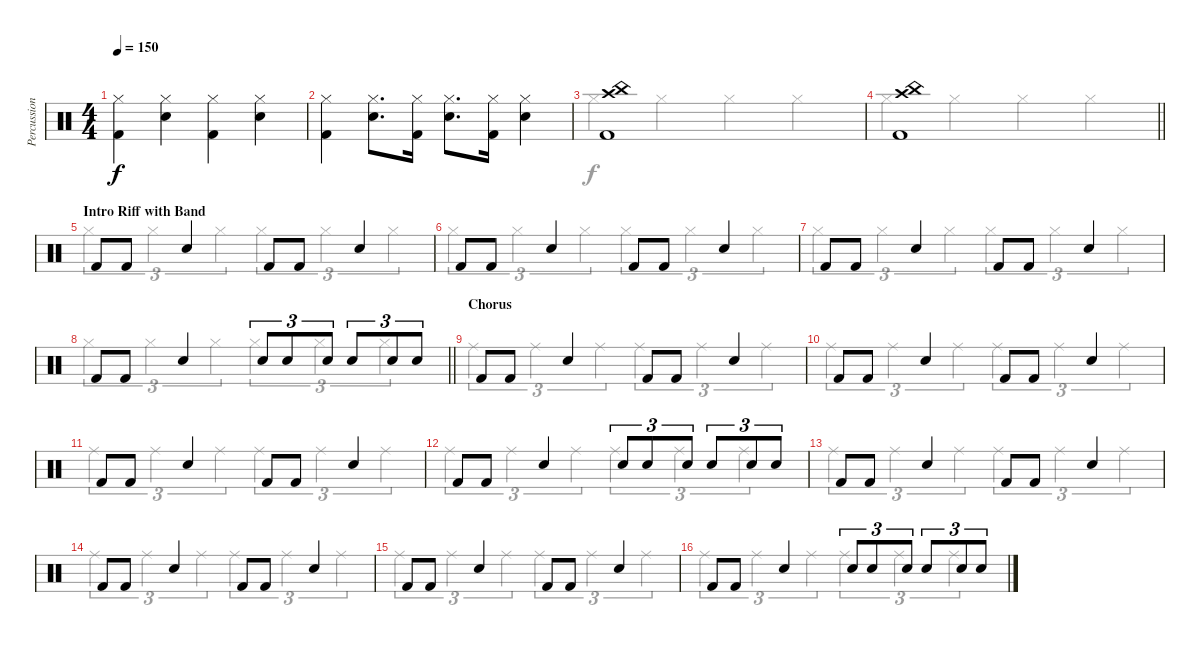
\track ("Percussion" "Percussion") {instrument percussion}
\staff {score}
\articulation defaults
\voice
\ts (4 4)
\tempo 150
\clef neutral
\ks c
("Kick (hit) 2" "Hi-Hat (closed)").4{dy f} ("Snare (hit) 2" "Hi-Hat (closed)").4 ("Kick (hit) 2" "Hi-Hat (closed)").4 ("Snare (hit) 2" "Hi-Hat (closed)").4 |
("Kick (hit) 2" "Hi-Hat (closed)").4 ("Snare (hit) 2" "Hi-Hat (closed)").8{d} ("Kick (hit) 2" "Hi-Hat (closed)").16 ("Snare (hit) 2" "Hi-Hat (closed)").8{d} ("Kick (hit) 2" "Hi-Hat (closed)").16 ("Snare (hit) 2" "Hi-Hat (closed)").4 |
("China (hit)" "Kick (hit) 2" "Crash high (hit)").1 |
\barLineRight lightlight
("China (hit)" "Kick (hit) 2" "Crash high (hit)").1 |
\section ("" "Intro Riff with Band")
"Kick (hit) 2".8 "Kick (hit) 2".8 "Snare (hit) 2".4 "Kick (hit) 2".8 "Kick (hit) 2".8 "Snare (hit) 2".4 |
"Kick (hit) 2".8 "Kick (hit) 2".8 "Snare (hit) 2".4 "Kick (hit) 2".8 "Kick (hit) 2".8 "Snare (hit) 2".4 |
"Kick (hit) 2".8 "Kick (hit) 2".8 "Snare (hit) 2".4 "Kick (hit) 2".8 "Kick (hit) 2".8 "Snare (hit) 2".4 |
\barLineRight lightlight "Kick (hit) 2".8 "Kick (hit) 2".8 "Snare (hit) 2".4 "Snare (hit) 2".8{tu (3 2)} "Snare (hit) 2".8{tu (3 2)} "Snare (hit) 2".8{tu (3 2)} "Snare (hit) 2".8{tu (3 2)} "Snare (hit) 2".8{tu (3 2)} "Snare (hit) 2".8{tu (3 2)}
|
\section ("" "Chorus")
"Kick (hit) 2".8 "Kick (hit) 2".8 "Snare (hit) 2".4 "Kick (hit) 2".8 "Kick (hit) 2".8 "Snare (hit) 2".4 |
"Kick (hit) 2".8 "Kick (hit) 2".8 "Snare (hit) 2".4 "Kick (hit) 2".8 "Kick (hit) 2".8 "Snare (hit) 2".4 |
"Kick (hit) 2".8 "Kick (hit) 2".8 "Snare (hit) 2".4 "Kick (hit) 2".8 "Kick (hit) 2".8 "Snare (hit) 2".4 |
"Kick (hit) 2".8 "Kick (hit) 2".8 "Snare (hit) 2".4 "Snare (hit) 2".8{tu (3 2)} "Snare (hit) 2".8{tu (3 2)} "Snare (hit) 2".8{tu (3 2)} "Snare (hit) 2".8{tu (3 2)} "Snare (hit) 2".8{tu (3 2)} "Snare (hit) 2".8{tu (3 2)} |
"Kick (hit) 2".8 "Kick (hit) 2".8 "Snare (hit) 2".4 "Kick (hit) 2".8 "Kick (hit) 2".8 "Snare (hit) 2".4 |
"Kick (hit) 2".8 "Kick (hit) 2".8 "Snare (hit) 2".4 "Kick (hit) 2".8 "Kick (hit) 2".8 "Snare (hit) 2".4 |
"Kick (hit) 2".8 "Kick (hit) 2".8 "Snare (hit) 2".4 "Kick (hit) 2".8 "Kick (hit) 2".8 "Snare (hit) 2".4 |
"Kick (hit) 2".8 "Kick (hit) 2".8 "Snare (hit) 2".4 "Snare (hit) 2".8{tu (3 2)} "Snare (hit) 2".8{tu (3 2)} "Snare (hit) 2".8{tu (3 2)} "Snare (hit) 2".8{tu (3 2)} "Snare (hit) 2".8{tu (3 2)} "Snare (hit) 2".8{tu (3 2)}
\voice
\clef neutral
\ottava regular
\simile none
\ks c
|
|
"Hi-Hat (closed)".4 "Hi-Hat (closed)".4 "Hi-Hat (closed)".4 "Hi-Hat (closed)".4 |
\barLineRight lightlight "Hi-Hat (closed)".4 "Hi-Hat (closed)".4 "Hi-Hat (closed)".4 "Hi-Hat (closed)".4
|
"Hi-Hat (closed)".4{tu (3 2)} "Hi-Hat (closed)".4{tu (3 2)} "Hi-Hat (closed)".4{tu (3 2)} "Hi-Hat (closed)".4{tu (3 2)} "Hi-Hat (closed)".4{tu (3 2)} "Hi-Hat (closed)".4{tu (3 2)} |
"Hi-Hat (closed)".4{tu (3 2)} "Hi-Hat (closed)".4{tu (3 2)} "Hi-Hat (closed)".4{tu (3 2)} "Hi-Hat (closed)".4{tu (3 2)} "Hi-Hat (closed)".4{tu (3 2)} "Hi-Hat (closed)".4{tu (3 2)} |
"Hi-Hat (closed)".4{tu (3 2)} "Hi-Hat (closed)".4{tu (3 2)} "Hi-Hat (closed)".4{tu (3 2)} "Hi-Hat (closed)".4{tu (3 2)} "Hi-Hat (closed)".4{tu (3 2)} "Hi-Hat (closed)".4{tu (3 2)} |
\barLineRight lightlight "Hi-Hat (closed)".4{tu (3 2)} "Hi-Hat (closed)".4{tu (3 2)} "Hi-Hat (closed)".4{tu (3 2)} "Hi-Hat (closed)".4{tu (3 2)} "Hi-Hat (closed)".4{tu (3 2)} "Hi-Hat (closed)".4{tu (3 2)}
|
"Ride (middle)".4{tu (3 2)} "Ride (middle)".4{tu (3 2)} "Ride (middle)".4{tu (3 2)} "Ride (middle)".4{tu (3 2)} "Ride (middle)".4{tu (3 2)} "Ride (middle)".4{tu (3 2)} |
"Ride (middle)".4{tu (3 2)} "Ride (middle)".4{tu (3 2)} "Ride (middle)".4{tu (3 2)} "Ride (middle)".4{tu (3 2)} "Ride (middle)".4{tu (3 2)} "Ride (middle)".4{tu (3 2)} |
"Ride (middle)".4{tu (3 2)} "Ride (middle)".4{tu (3 2)} "Ride (middle)".4{tu (3 2)} "Ride (middle)".4{tu (3 2)} "Ride (middle)".4{tu (3 2)} "Ride (middle)".4{tu (3 2)} |
"Ride (middle)".4{tu (3 2)} "Ride (middle)".4{tu (3 2)} "Ride (middle)".4{tu (3 2)} "Ride (middle)".4{tu (3 2)} "Ride (middle)".4{tu (3 2)} "Ride (middle)".4{tu (3 2)} |
"Ride (middle)".4{tu (3 2)} "Ride (middle)".4{tu (3 2)} "Ride (middle)".4{tu (3 2)} "Ride (middle)".4{tu (3 2)} "Ride (middle)".4{tu (3 2)} "Ride (middle)".4{tu (3 2)} |
"Ride (middle)".4{tu (3 2)} "Ride (middle)".4{tu (3 2)} "Ride (middle)".4{tu (3 2)} "Ride (middle)".4{tu (3 2)} "Ride (middle)".4{tu (3 2)} "Ride (middle)".4{tu (3 2)} |
"Ride (middle)".4{tu (3 2)} "Ride (middle)".4{tu (3 2)} "Ride (middle)".4{tu (3 2)} "Ride (middle)".4{tu (3 2)} "Ride (middle)".4{tu (3 2)} "Ride (middle)".4{tu (3 2)} |
"Ride (middle)".4{tu (3 2)} "Ride (middle)".4{tu (3 2)} "Ride (middle)".4{tu (3 2)} "Ride (middle)".4{tu (3 2)} "Ride (middle)".4{tu (3 2)} "Ride (middle)".4{tu (3 2)}
